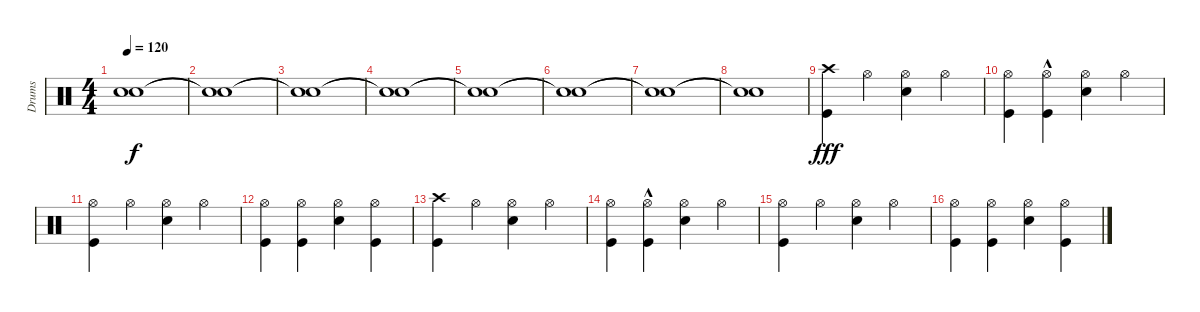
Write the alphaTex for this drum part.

\track ("Drums" "Drums") {instrument percussion}
\staff {score}
\articulation defaults
\ts (4 4)
\tempo 120
\clef neutral
\ks c
("Snare (hit)"{t} "Snare (hit)"{t}).1{dy f} |
("Snare (hit)"{t} "Snare (hit)"{t}).1 |
("Snare (hit)"{t} "Snare (hit)"{t}).1 |
("Snare (hit)"{t} "Snare (hit)"{t}).1 |
("Snare (hit)"{t} "Snare (hit)"{t}).1 |
("Snare (hit)"{t} "Snare (hit)"{t}).1 |
("Snare (hit)"{t} "Snare (hit)"{t}).1 |
("Snare (hit)"{t} "Snare (hit)"{t}).1 |
("Kick (hit)" "Crash high (hit)").4{dy fff} "Hi-Hat (open)".4 ("Snare (hit) 2" "Hi-Hat (open)").4 "Hi-Hat (open)".4 |
("Kick (hit)" "Hi-Hat (open)").4 ("Kick (hit)"{hac} "Hi-Hat (open)").4 ("Snare (hit) 2" "Hi-Hat (open)").4 "Hi-Hat (open)".4 |
("Kick (hit)" "Hi-Hat (open)").4 "Hi-Hat (open)".4 ("Snare (hit) 2" "Hi-Hat (open)").4 "Hi-Hat (open)".4 |
("Kick (hit)" "Hi-Hat (open)").4 ("Kick (hit)" "Hi-Hat (open)").4 ("Snare (hit) 2" "Hi-Hat (open)").4 ("Kick (hit)" "Hi-Hat (open)").4 |
("Kick (hit)" "Crash high (hit)").4 "Hi-Hat (open)".4 ("Snare (hit) 2" "Hi-Hat (open)").4 "Hi-Hat (open)".4 |
("Kick (hit)" "Hi-Hat (open)").4 ("Kick (hit)"{hac} "Hi-Hat (open)").4 ("Snare (hit) 2" "Hi-Hat (open)").4 "Hi-Hat (open)".4 |
("Kick (hit)" "Hi-Hat (open)").4 "Hi-Hat (open)".4 ("Snare (hit) 2" "Hi-Hat (open)").4 "Hi-Hat (open)".4 |
("Kick (hit)" "Hi-Hat (open)").4 ("Kick (hit)" "Hi-Hat (open)").4 ("Snare (hit) 2" "Hi-Hat (open)").4 ("Kick (hit)" "Hi-Hat (open)").4
